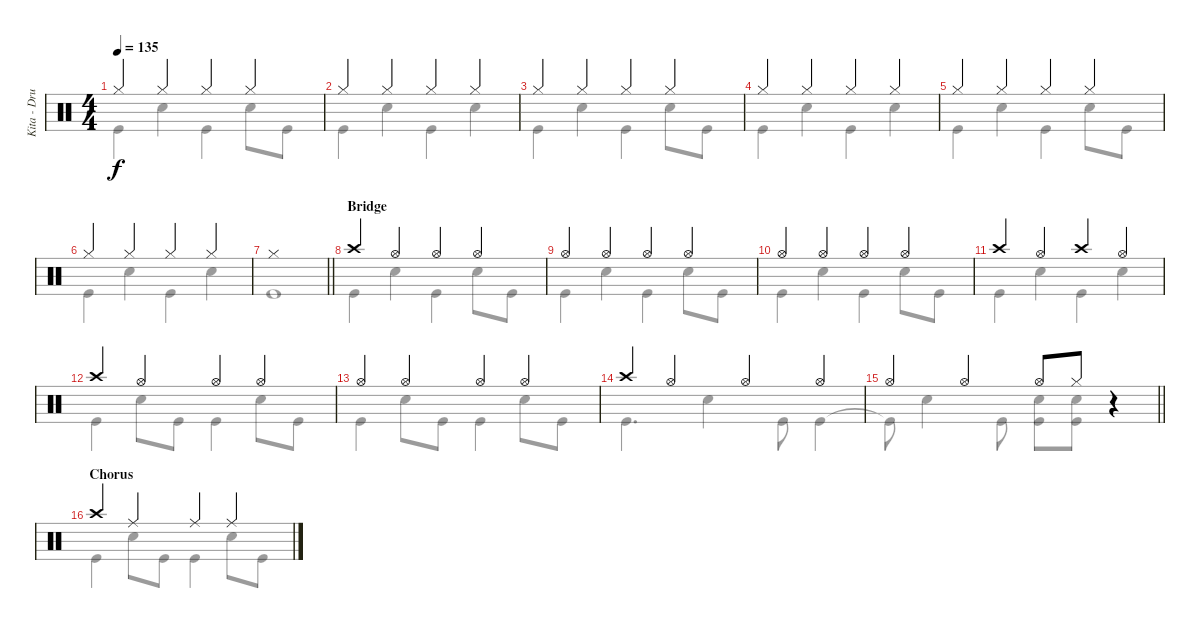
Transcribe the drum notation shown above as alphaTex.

\track ("Kita - Drums" "Kita - Dru") {instrument percussion}
\staff {score}
\articulation defaults
\voice
\ts (4 4)
\tempo 135
\clef neutral
\ks c "Hi-Hat (closed)".4{dy f} "Hi-Hat (closed)".4 "Hi-Hat (closed)".4 "Hi-Hat (closed)".4
|
"Hi-Hat (closed)".4 "Hi-Hat (closed)".4 "Hi-Hat (closed)".4 "Hi-Hat (closed)".4 |
"Hi-Hat (closed)".4 "Hi-Hat (closed)".4 "Hi-Hat (closed)".4 "Hi-Hat (closed)".4 |
"Hi-Hat (closed)".4 "Hi-Hat (closed)".4 "Hi-Hat (closed)".4 "Hi-Hat (closed)".4 |
"Hi-Hat (closed)".4 "Hi-Hat (closed)".4 "Hi-Hat (closed)".4 "Hi-Hat (closed)".4 |
"Hi-Hat (closed)".4 "Hi-Hat (closed)".4 "Hi-Hat (closed)".4 "Hi-Hat (closed)".4 |
\barLineRight lightlight "Hi-Hat (closed)".1
|
\section ("" "Bridge")
"Crash high (hit)".4 "Hi-Hat (open)".4 "Hi-Hat (open)".4 "Hi-Hat (open)".4 |
"Hi-Hat (open)".4 "Hi-Hat (open)".4 "Hi-Hat (open)".4 "Hi-Hat (open)".4 |
"Hi-Hat (open)".4 "Hi-Hat (open)".4 "Hi-Hat (open)".4 "Hi-Hat (open)".4 |
"Crash high (hit)".4 "Hi-Hat (open)".4 "Crash high (hit)".4 "Hi-Hat (open)".4 |
"Crash high (hit)".4 "Hi-Hat (open)".4 "Hi-Hat (open)".4 "Hi-Hat (open)".4 |
"Hi-Hat (open)".4 "Hi-Hat (open)".4 "Hi-Hat (open)".4 "Hi-Hat (open)".4 |
"Crash high (hit)".4 "Hi-Hat (open)".4 "Hi-Hat (open)".4 "Hi-Hat (open)".4 |
\barLineRight lightlight "Hi-Hat (open)".4 "Hi-Hat (open)".4 "Hi-Hat (open)".8 "Hi-Hat (closed)".8
r.4 |
\section ("" "Chorus")
"Crash high (hit)".4 "Ride (middle)".4 "Ride (middle)".4 "Ride (middle)".4
\voice
\clef neutral
\ottava regular
\simile none
\ks c "Kick (hit)".4{dy f} "Snare (hit) 2".4 "Kick (hit)".4 "Snare (hit) 2".8 "Kick (hit)".8
|
"Kick (hit)".4 "Snare (hit) 2".4 "Kick (hit)".4 "Snare (hit) 2".4 |
"Kick (hit)".4 "Snare (hit) 2".4 "Kick (hit)".4 "Snare (hit) 2".8 "Kick (hit)".8 |
"Kick (hit)".4 "Snare (hit) 2".4 "Kick (hit)".4 "Snare (hit) 2".4 |
"Kick (hit)".4 "Snare (hit) 2".4 "Kick (hit)".4 "Snare (hit) 2".8 "Kick (hit)".8 |
"Kick (hit)".4 "Snare (hit) 2".4 "Kick (hit)".4 "Snare (hit) 2".4 |
\barLineRight lightlight "Kick (hit)".1
|
"Kick (hit)".4 "Snare (hit) 2".4 "Kick (hit)".4 "Snare (hit) 2".8 "Kick (hit)".8 |
"Kick (hit)".4 "Snare (hit) 2".4 "Kick (hit)".4 "Snare (hit) 2".8 "Kick (hit)".8 |
"Kick (hit)".4 "Snare (hit) 2".4 "Kick (hit)".4 "Snare (hit) 2".8 "Kick (hit)".8 |
"Kick (hit)".4 "Snare (hit) 2".4 "Kick (hit)".4 "Snare (hit) 2".4 |
"Kick (hit)".4 "Snare (hit) 2".8 "Kick (hit)".8 "Kick (hit)".4 "Snare (hit) 2".8 "Kick (hit)".8 |
"Kick (hit)".4 "Snare (hit) 2".8 "Kick (hit)".8 "Kick (hit)".4 "Snare (hit) 2".8 "Kick (hit)".8 |
"Kick (hit)".4{d} "Snare (hit) 2".4 "Kick (hit)".8 "Kick (hit)".4 |
\barLineRight lightlight "Kick (hit)"{t}.8 "Snare (hit) 2".4 "Kick (hit)".8
("Snare (hit) 2" "Kick (hit)").8 ("Snare (hit) 2" "Kick (hit)").8 r.4 |
"Kick (hit)".4 "Snare (hit) 2".8 "Kick (hit)".8 "Kick (hit)".4 "Snare (hit) 2".8 "Kick (hit)".8
